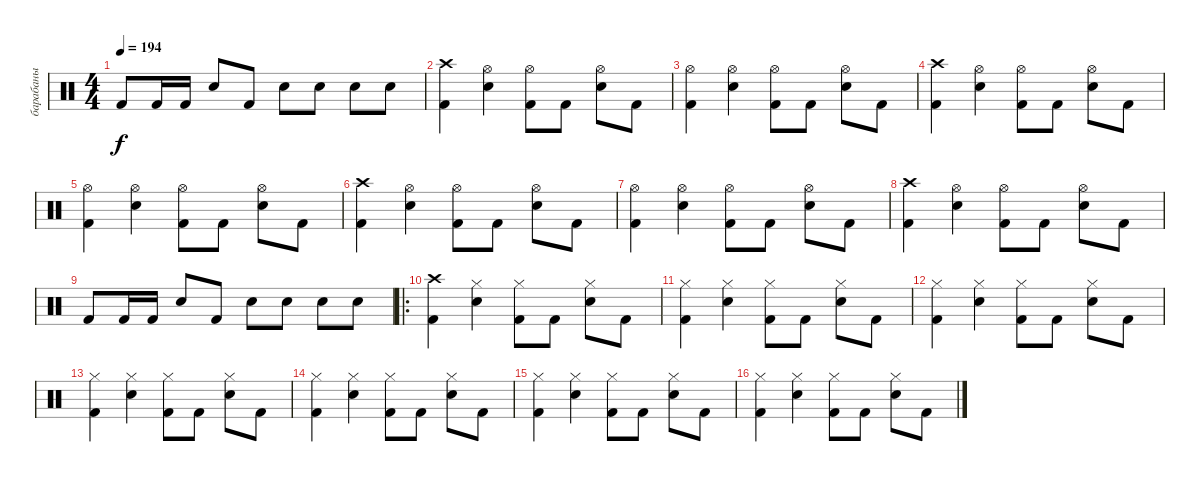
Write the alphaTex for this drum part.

\track ("барабаны" "барабаны") {instrument percussion}
\staff {score}
\articulation defaults
\ts (4 4)
\tempo 194
\clef neutral
\ks c "Kick (hit) 2".8{dy f} "Kick (hit) 2".16 "Kick (hit) 2".16 "Snare (hit) 2".8 "Kick (hit) 2".8 "Snare (hit) 2".8 "Snare (hit) 2".8 "Snare (hit) 2".8 "Snare (hit) 2".8
|
("Crash high (hit)" "Kick (hit) 2").4 ("Hi-Hat (open)" "Snare (hit) 2").4 ("Hi-Hat (open)" "Kick (hit) 2").8 "Kick (hit) 2".8 ("Hi-Hat (open)" "Snare (hit) 2").8 "Kick (hit) 2".8 |
("Hi-Hat (open)" "Kick (hit) 2").4 ("Hi-Hat (open)" "Snare (hit) 2").4 ("Hi-Hat (open)" "Kick (hit) 2").8 "Kick (hit) 2".8 ("Hi-Hat (open)" "Snare (hit) 2").8 "Kick (hit) 2".8 |
("Crash high (hit)" "Kick (hit) 2").4 ("Hi-Hat (open)" "Snare (hit) 2").4 ("Hi-Hat (open)" "Kick (hit) 2").8 "Kick (hit) 2".8 ("Hi-Hat (open)" "Snare (hit) 2").8 "Kick (hit) 2".8 |
("Hi-Hat (open)" "Kick (hit) 2").4 ("Hi-Hat (open)" "Snare (hit) 2").4 ("Hi-Hat (open)" "Kick (hit) 2").8 "Kick (hit) 2".8 ("Hi-Hat (open)" "Snare (hit) 2").8 "Kick (hit) 2".8 |
("Crash high (hit)" "Kick (hit) 2").4 ("Hi-Hat (open)" "Snare (hit) 2").4 ("Hi-Hat (open)" "Kick (hit) 2").8 "Kick (hit) 2".8 ("Hi-Hat (open)" "Snare (hit) 2").8 "Kick (hit) 2".8 |
("Hi-Hat (open)" "Kick (hit) 2").4 ("Hi-Hat (open)" "Snare (hit) 2").4 ("Hi-Hat (open)" "Kick (hit) 2").8 "Kick (hit) 2".8 ("Hi-Hat (open)" "Snare (hit) 2").8 "Kick (hit) 2".8 |
("Crash high (hit)" "Kick (hit) 2").4 ("Hi-Hat (open)" "Snare (hit) 2").4 ("Hi-Hat (open)" "Kick (hit) 2").8 "Kick (hit) 2".8 ("Hi-Hat (open)" "Snare (hit) 2").8 "Kick (hit) 2".8 |
"Kick (hit) 2".8 "Kick (hit) 2".16 "Kick (hit) 2".16 "Snare (hit) 2".8 "Kick (hit) 2".8 "Snare (hit) 2".8 "Snare (hit) 2".8 "Snare (hit) 2".8 "Snare (hit) 2".8 |
\ro
("Crash high (hit)" "Kick (hit) 2").4 ("Hi-Hat (closed)" "Snare (hit) 2").4 ("Hi-Hat (closed)" "Kick (hit) 2").8 "Kick (hit) 2".8 ("Hi-Hat (closed)" "Snare (hit) 2").8 "Kick (hit) 2".8 |
("Hi-Hat (closed)" "Kick (hit) 2").4 ("Hi-Hat (closed)" "Snare (hit) 2").4 ("Hi-Hat (closed)" "Kick (hit) 2").8 "Kick (hit) 2".8 ("Hi-Hat (closed)" "Snare (hit) 2").8 "Kick (hit) 2".8 |
("Hi-Hat (closed)" "Kick (hit) 2").4 ("Hi-Hat (closed)" "Snare (hit) 2").4 ("Hi-Hat (closed)" "Kick (hit) 2").8 "Kick (hit) 2".8 ("Hi-Hat (closed)" "Snare (hit) 2").8 "Kick (hit) 2".8 |
("Hi-Hat (closed)" "Kick (hit) 2").4 ("Hi-Hat (closed)" "Snare (hit) 2").4 ("Hi-Hat (closed)" "Kick (hit) 2").8 "Kick (hit) 2".8 ("Hi-Hat (closed)" "Snare (hit) 2").8 "Kick (hit) 2".8 |
("Hi-Hat (closed)" "Kick (hit) 2").4 ("Hi-Hat (closed)" "Snare (hit) 2").4 ("Hi-Hat (closed)" "Kick (hit) 2").8 "Kick (hit) 2".8 ("Hi-Hat (closed)" "Snare (hit) 2").8 "Kick (hit) 2".8 |
("Hi-Hat (closed)" "Kick (hit) 2").4 ("Hi-Hat (closed)" "Snare (hit) 2").4 ("Hi-Hat (closed)" "Kick (hit) 2").8 "Kick (hit) 2".8 ("Hi-Hat (closed)" "Snare (hit) 2").8 "Kick (hit) 2".8 |
("Hi-Hat (closed)" "Kick (hit) 2").4 ("Hi-Hat (closed)" "Snare (hit) 2").4 ("Hi-Hat (closed)" "Kick (hit) 2").8 "Kick (hit) 2".8 ("Hi-Hat (closed)" "Snare (hit) 2").8 "Kick (hit) 2".8
